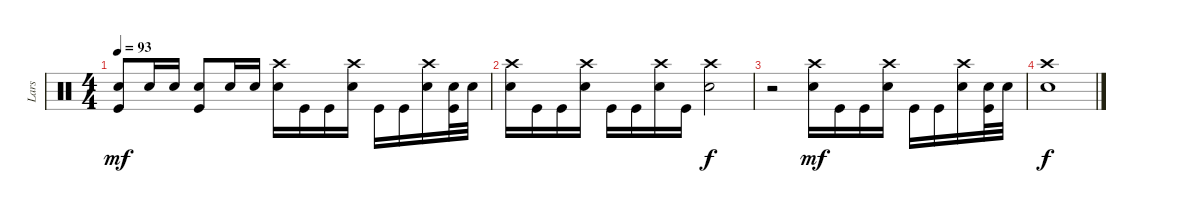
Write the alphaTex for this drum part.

\track ("Lars" "Lars") {instrument percussion}
\staff {score}
\articulation defaults
\ts (4 4)
\tempo 93
\clef neutral
\ks c
("Snare (hit) 2" "Kick (hit)").8{dy mf} "Snare (hit) 2".16 "Snare (hit) 2".16 ("Snare (hit) 2" "Kick (hit)").8 "Snare (hit) 2".16 "Snare (hit) 2".16 ("Crash high (hit)" "Snare (hit) 2").16 "Kick (hit)".16 "Kick (hit)".16 ("Crash high (hit)" "Snare (hit) 2").16 "Kick (hit)".16 "Kick (hit)".16 ("Crash high (hit)" "Snare (hit) 2").16 ("Snare (hit) 2" "Kick (hit)").32 "Snare (hit) 2".32 |
("Crash high (hit)" "Snare (hit) 2").16 "Kick (hit)".16 "Kick (hit)".16 ("Crash high (hit)" "Snare (hit) 2").16 "Kick (hit)".16 "Kick (hit)".16 ("Crash high (hit)" "Snare (hit) 2").16 "Kick (hit)".16 ("Crash high (hit)" "Snare (hit) 2").2{dy f} |
r.2 ("Crash high (hit)" "Snare (hit) 2").16{dy mf} "Kick (hit)".16 "Kick (hit)".16 ("Crash high (hit)" "Snare (hit) 2").16 "Kick (hit)".16 "Kick (hit)".16 ("Crash high (hit)" "Snare (hit) 2").16 ("Snare (hit) 2" "Kick (hit)").32 "Snare (hit) 2".32 |
("Crash high (hit)" "Snare (hit) 2").1{dy f}
